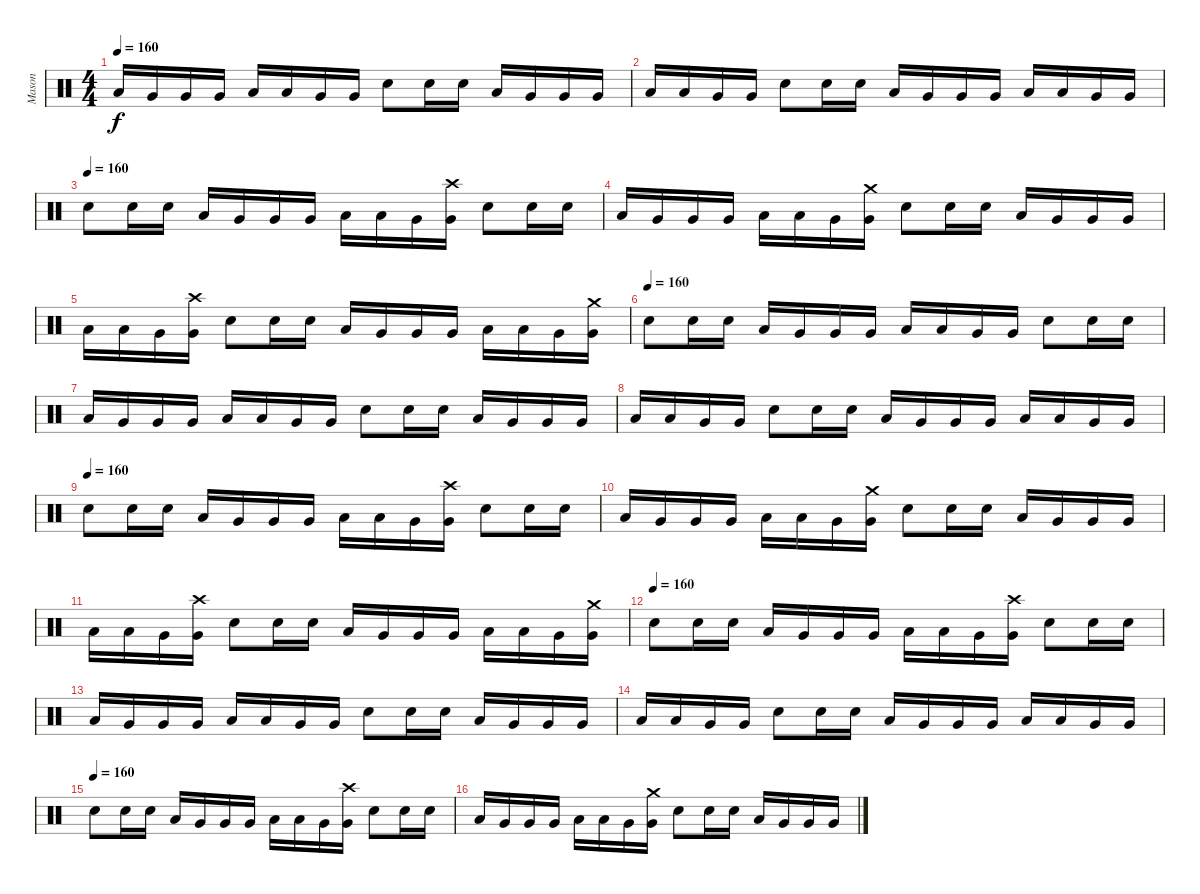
\track ("Mason" "Mason") {instrument percussion}
\staff {score}
\articulation defaults
\ts (4 4)
\tempo 160
\clef neutral
\ks c "Low Tom (hit)".16{dy f} "Very Low Tom (hit)".16 "Very Low Tom (hit)".16 "Very Low Tom (hit)".16 "Low Floor Tom (hit)".16 "Low Floor Tom (hit)".16 "Very Low Tom (hit)".16 "Very Low Tom (hit)".16 "Electric Snare (hit)".8 "Electric Snare (hit)".16 "Electric Snare (hit)".16 "Low Tom (hit)".16 "Very Low Tom (hit)".16 "Very Low Tom (hit)".16 "Very Low Tom (hit)".16
|
"Low Floor Tom (hit)".16 "Low Floor Tom (hit)".16 "Very Low Tom (hit)".16 "Very Low Tom (hit)".16 "Electric Snare (hit)".8 "Electric Snare (hit)".16 "Electric Snare (hit)".16 "Low Tom (hit)".16 "Very Low Tom (hit)".16 "Very Low Tom (hit)".16 "Very Low Tom (hit)".16 "Low Floor Tom (hit)".16 "Low Floor Tom (hit)".16 "Very Low Tom (hit)".16 "Very Low Tom (hit)".16 |
\tempo (160)
"Electric Snare (hit)".8 "Electric Snare (hit)".16 "Electric Snare (hit)".16 "Low Tom (hit)".16 "Very Low Tom (hit)".16 "Very Low Tom (hit)".16 "Very Low Tom (hit)".16 "Low Floor Tom (hit)".16 "Low Floor Tom (hit)".16 "Very Low Tom (hit)".16 ("Crash high (hit)" "Very Low Tom (hit)").16 "Electric Snare (hit)".8 "Electric Snare (hit)".16 "Electric Snare (hit)".16 |
"Low Tom (hit)".16 "Very Low Tom (hit)".16 "Very Low Tom (hit)".16 "Very Low Tom (hit)".16 "Low Floor Tom (hit)".16 "Low Floor Tom (hit)".16 "Very Low Tom (hit)".16 ("Crash medium (hit)" "Very Low Tom (hit)").16 "Electric Snare (hit)".8 "Electric Snare (hit)".16 "Electric Snare (hit)".16 "Low Tom (hit)".16 "Very Low Tom (hit)".16 "Very Low Tom (hit)".16 "Very Low Tom (hit)".16 |
"Low Floor Tom (hit)".16 "Low Floor Tom (hit)".16 "Very Low Tom (hit)".16 ("Crash high (hit)" "Very Low Tom (hit)").16 "Electric Snare (hit)".8 "Electric Snare (hit)".16 "Electric Snare (hit)".16 "Low Tom (hit)".16 "Very Low Tom (hit)".16 "Very Low Tom (hit)".16 "Very Low Tom (hit)".16 "Low Floor Tom (hit)".16 "Low Floor Tom (hit)".16 "Very Low Tom (hit)".16 ("Crash medium (hit)" "Very Low Tom (hit)").16 |
\tempo (160)
"Electric Snare (hit)".8 "Electric Snare (hit)".16 "Electric Snare (hit)".16 "Low Tom (hit)".16 "Very Low Tom (hit)".16 "Very Low Tom (hit)".16 "Very Low Tom (hit)".16 "Low Floor Tom (hit)".16 "Low Floor Tom (hit)".16 "Very Low Tom (hit)".16 "Very Low Tom (hit)".16 "Electric Snare (hit)".8 "Electric Snare (hit)".16 "Electric Snare (hit)".16 |
"Low Tom (hit)".16 "Very Low Tom (hit)".16 "Very Low Tom (hit)".16 "Very Low Tom (hit)".16 "Low Floor Tom (hit)".16 "Low Floor Tom (hit)".16 "Very Low Tom (hit)".16 "Very Low Tom (hit)".16 "Electric Snare (hit)".8 "Electric Snare (hit)".16 "Electric Snare (hit)".16 "Low Tom (hit)".16 "Very Low Tom (hit)".16 "Very Low Tom (hit)".16 "Very Low Tom (hit)".16 |
"Low Floor Tom (hit)".16 "Low Floor Tom (hit)".16 "Very Low Tom (hit)".16 "Very Low Tom (hit)".16 "Electric Snare (hit)".8 "Electric Snare (hit)".16 "Electric Snare (hit)".16 "Low Tom (hit)".16 "Very Low Tom (hit)".16 "Very Low Tom (hit)".16 "Very Low Tom (hit)".16 "Low Floor Tom (hit)".16 "Low Floor Tom (hit)".16 "Very Low Tom (hit)".16 "Very Low Tom (hit)".16 |
\tempo (160)
"Electric Snare (hit)".8 "Electric Snare (hit)".16 "Electric Snare (hit)".16 "Low Tom (hit)".16 "Very Low Tom (hit)".16 "Very Low Tom (hit)".16 "Very Low Tom (hit)".16 "Low Floor Tom (hit)".16 "Low Floor Tom (hit)".16 "Very Low Tom (hit)".16 ("Crash high (hit)" "Very Low Tom (hit)").16 "Electric Snare (hit)".8 "Electric Snare (hit)".16 "Electric Snare (hit)".16 |
"Low Tom (hit)".16 "Very Low Tom (hit)".16 "Very Low Tom (hit)".16 "Very Low Tom (hit)".16 "Low Floor Tom (hit)".16 "Low Floor Tom (hit)".16 "Very Low Tom (hit)".16 ("Crash medium (hit)" "Very Low Tom (hit)").16 "Electric Snare (hit)".8 "Electric Snare (hit)".16 "Electric Snare (hit)".16 "Low Tom (hit)".16 "Very Low Tom (hit)".16 "Very Low Tom (hit)".16 "Very Low Tom (hit)".16 |
"Low Floor Tom (hit)".16 "Low Floor Tom (hit)".16 "Very Low Tom (hit)".16 ("Crash high (hit)" "Very Low Tom (hit)").16 "Electric Snare (hit)".8 "Electric Snare (hit)".16 "Electric Snare (hit)".16 "Low Tom (hit)".16 "Very Low Tom (hit)".16 "Very Low Tom (hit)".16 "Very Low Tom (hit)".16 "Low Floor Tom (hit)".16 "Low Floor Tom (hit)".16 "Very Low Tom (hit)".16 ("Crash medium (hit)" "Very Low Tom (hit)").16 |
\tempo (160)
"Electric Snare (hit)".8 "Electric Snare (hit)".16 "Electric Snare (hit)".16 "Low Tom (hit)".16 "Very Low Tom (hit)".16 "Very Low Tom (hit)".16 "Very Low Tom (hit)".16 "Low Floor Tom (hit)".16 "Low Floor Tom (hit)".16 "Very Low Tom (hit)".16 ("Crash high (hit)" "Very Low Tom (hit)").16 "Electric Snare (hit)".8 "Electric Snare (hit)".16 "Electric Snare (hit)".16 |
"Low Tom (hit)".16 "Very Low Tom (hit)".16 "Very Low Tom (hit)".16 "Very Low Tom (hit)".16 "Low Floor Tom (hit)".16 "Low Floor Tom (hit)".16 "Very Low Tom (hit)".16 "Very Low Tom (hit)".16 "Electric Snare (hit)".8 "Electric Snare (hit)".16 "Electric Snare (hit)".16 "Low Tom (hit)".16 "Very Low Tom (hit)".16 "Very Low Tom (hit)".16 "Very Low Tom (hit)".16 |
"Low Floor Tom (hit)".16 "Low Floor Tom (hit)".16 "Very Low Tom (hit)".16 "Very Low Tom (hit)".16 "Electric Snare (hit)".8 "Electric Snare (hit)".16 "Electric Snare (hit)".16 "Low Tom (hit)".16 "Very Low Tom (hit)".16 "Very Low Tom (hit)".16 "Very Low Tom (hit)".16 "Low Floor Tom (hit)".16 "Low Floor Tom (hit)".16 "Very Low Tom (hit)".16 "Very Low Tom (hit)".16 |
\tempo (160)
"Electric Snare (hit)".8 "Electric Snare (hit)".16 "Electric Snare (hit)".16 "Low Tom (hit)".16 "Very Low Tom (hit)".16 "Very Low Tom (hit)".16 "Very Low Tom (hit)".16 "Low Floor Tom (hit)".16 "Low Floor Tom (hit)".16 "Very Low Tom (hit)".16 ("Crash high (hit)" "Very Low Tom (hit)").16 "Electric Snare (hit)".8 "Electric Snare (hit)".16 "Electric Snare (hit)".16 |
"Low Tom (hit)".16 "Very Low Tom (hit)".16 "Very Low Tom (hit)".16 "Very Low Tom (hit)".16 "Low Floor Tom (hit)".16 "Low Floor Tom (hit)".16 "Very Low Tom (hit)".16 ("Crash medium (hit)" "Very Low Tom (hit)").16 "Electric Snare (hit)".8 "Electric Snare (hit)".16 "Electric Snare (hit)".16 "Low Tom (hit)".16 "Very Low Tom (hit)".16 "Very Low Tom (hit)".16 "Very Low Tom (hit)".16
